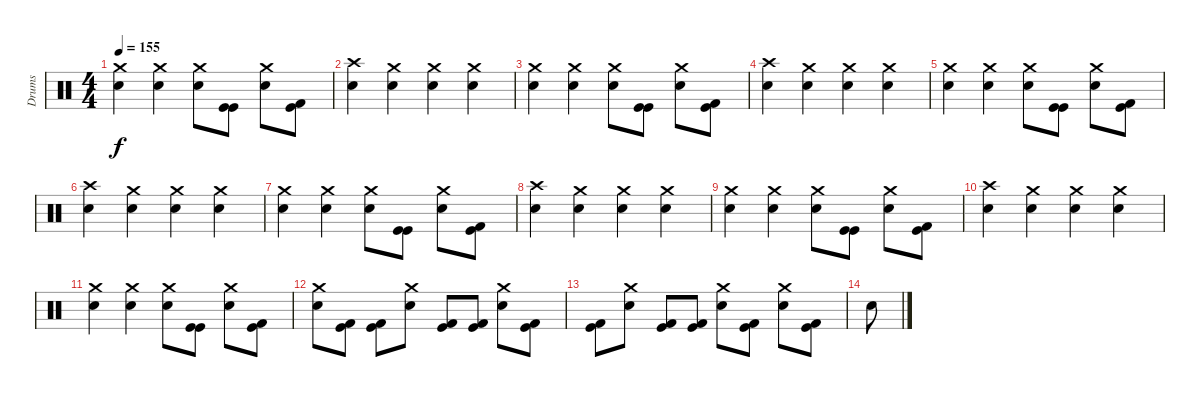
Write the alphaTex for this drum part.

\track ("Drums" "Drums") {instrument percussion}
\staff {score}
\articulation defaults
\ts (4 4)
\tempo 155
\clef neutral
\ks c
("Crash medium (hit)" "Electric Snare (hit)").4{dy f} ("Crash medium (hit)" "Electric Snare (hit)").4 ("Crash medium (hit)" "Electric Snare (hit)").8 ("Kick (hit)" "Kick (hit)").8 ("Crash medium (hit)" "Electric Snare (hit)").8 ("Kick (hit)" "Kick (hit) 2").8 |
("Crash high (hit)" "Electric Snare (hit)").4 ("Crash medium (hit)" "Electric Snare (hit)").4 ("Crash medium (hit)" "Electric Snare (hit)").4 ("Crash medium (hit)" "Electric Snare (hit)").4 |
("Crash medium (hit)" "Electric Snare (hit)").4 ("Crash medium (hit)" "Electric Snare (hit)").4 ("Crash medium (hit)" "Electric Snare (hit)").8 ("Kick (hit)" "Kick (hit)").8 ("Crash medium (hit)" "Electric Snare (hit)").8 ("Kick (hit)" "Kick (hit) 2").8 |
("Crash high (hit)" "Electric Snare (hit)").4 ("Crash medium (hit)" "Electric Snare (hit)").4 ("Crash medium (hit)" "Electric Snare (hit)").4 ("Crash medium (hit)" "Electric Snare (hit)").4 |
("Crash medium (hit)" "Electric Snare (hit)").4 ("Crash medium (hit)" "Electric Snare (hit)").4 ("Crash medium (hit)" "Electric Snare (hit)").8 ("Kick (hit)" "Kick (hit)").8 ("Crash medium (hit)" "Electric Snare (hit)").8 ("Kick (hit)" "Kick (hit) 2").8 |
("Crash high (hit)" "Electric Snare (hit)").4 ("Crash medium (hit)" "Electric Snare (hit)").4 ("Crash medium (hit)" "Electric Snare (hit)").4 ("Crash medium (hit)" "Electric Snare (hit)").4 |
("Crash medium (hit)" "Electric Snare (hit)").4 ("Crash medium (hit)" "Electric Snare (hit)").4 ("Crash medium (hit)" "Electric Snare (hit)").8 ("Kick (hit)" "Kick (hit)").8 ("Crash medium (hit)" "Electric Snare (hit)").8 ("Kick (hit)" "Kick (hit) 2").8 |
("Crash high (hit)" "Electric Snare (hit)").4 ("Crash medium (hit)" "Electric Snare (hit)").4 ("Crash medium (hit)" "Electric Snare (hit)").4 ("Crash medium (hit)" "Electric Snare (hit)").4 |
("Crash medium (hit)" "Electric Snare (hit)").4 ("Crash medium (hit)" "Electric Snare (hit)").4 ("Crash medium (hit)" "Electric Snare (hit)").8 ("Kick (hit)" "Kick (hit)").8 ("Crash medium (hit)" "Electric Snare (hit)").8 ("Kick (hit)" "Kick (hit) 2").8 |
("Crash high (hit)" "Electric Snare (hit)").4 ("Crash medium (hit)" "Electric Snare (hit)").4 ("Crash medium (hit)" "Electric Snare (hit)").4 ("Crash medium (hit)" "Electric Snare (hit)").4 |
("Crash medium (hit)" "Electric Snare (hit)").4 ("Crash medium (hit)" "Electric Snare (hit)").4 ("Crash medium (hit)" "Electric Snare (hit)").8 ("Kick (hit)" "Kick (hit)").8 ("Crash medium (hit)" "Electric Snare (hit)").8 ("Kick (hit)" "Kick (hit) 2").8 |
("Crash medium (hit)" "Electric Snare (hit)").8 ("Kick (hit)" "Kick (hit) 2").8 ("Kick (hit)" "Kick (hit) 2").8 ("Crash medium (hit)" "Electric Snare (hit)").8 ("Kick (hit)" "Kick (hit) 2").8 ("Kick (hit)" "Kick (hit) 2").8 ("Crash medium (hit)" "Electric Snare (hit)").8 ("Kick (hit)" "Kick (hit) 2").8 |
("Kick (hit)" "Kick (hit) 2").8 ("Crash medium (hit)" "Electric Snare (hit)").8 ("Kick (hit)" "Kick (hit) 2").8 ("Kick (hit)" "Kick (hit) 2").8 ("Crash medium (hit)" "Electric Snare (hit)").8 ("Kick (hit)" "Kick (hit) 2").8 ("Crash medium (hit)" "Electric Snare (hit)").8 ("Kick (hit)" "Kick (hit) 2").8 |
"Electric Snare (hit)".8
